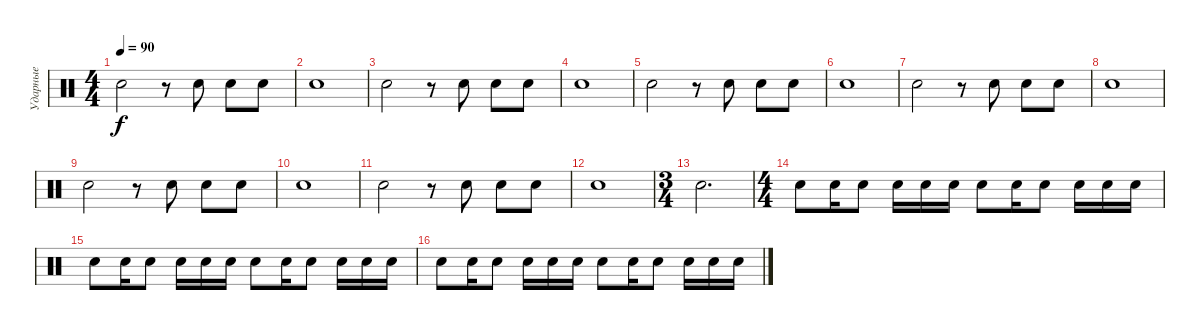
\track ("Ударные" "Ударные") {instrument percussion}
\staff {score}
\articulation defaults
\ts (4 4)
\tempo 90
\clef neutral
\ks c "Electric Snare (hit)".2{dy f}
r.8 "Electric Snare (hit)".8 "Electric Snare (hit)".8 "Electric Snare (hit)".8 |
"Electric Snare (hit)".1 |
"Electric Snare (hit)".2 r.8 "Electric Snare (hit)".8 "Electric Snare (hit)".8 "Electric Snare (hit)".8 |
"Electric Snare (hit)".1 |
"Electric Snare (hit)".2 r.8 "Electric Snare (hit)".8 "Electric Snare (hit)".8 "Electric Snare (hit)".8 |
"Electric Snare (hit)".1 |
"Electric Snare (hit)".2 r.8 "Electric Snare (hit)".8 "Electric Snare (hit)".8 "Electric Snare (hit)".8 |
"Electric Snare (hit)".1 |
"Electric Snare (hit)".2 r.8 "Electric Snare (hit)".8 "Electric Snare (hit)".8 "Electric Snare (hit)".8 |
"Electric Snare (hit)".1 |
"Electric Snare (hit)".2 r.8 "Electric Snare (hit)".8 "Electric Snare (hit)".8 "Electric Snare (hit)".8 |
"Electric Snare (hit)".1 |
\ts (3 4)
"Electric Snare (hit)".2{d} |
\ts (4 4)
"Electric Snare (hit)".8 "Electric Snare (hit)".16 "Electric Snare (hit)".8 "Electric Snare (hit)".16 "Electric Snare (hit)".16 "Electric Snare (hit)".16 "Electric Snare (hit)".8 "Electric Snare (hit)".16 "Electric Snare (hit)".8 "Electric Snare (hit)".16 "Electric Snare (hit)".16 "Electric Snare (hit)".16 |
"Electric Snare (hit)".8 "Electric Snare (hit)".16 "Electric Snare (hit)".8 "Electric Snare (hit)".16 "Electric Snare (hit)".16 "Electric Snare (hit)".16 "Electric Snare (hit)".8 "Electric Snare (hit)".16 "Electric Snare (hit)".8 "Electric Snare (hit)".16 "Electric Snare (hit)".16 "Electric Snare (hit)".16 |
"Electric Snare (hit)".8 "Electric Snare (hit)".16 "Electric Snare (hit)".8 "Electric Snare (hit)".16 "Electric Snare (hit)".16 "Electric Snare (hit)".16 "Electric Snare (hit)".8 "Electric Snare (hit)".16 "Electric Snare (hit)".8 "Electric Snare (hit)".16 "Electric Snare (hit)".16 "Electric Snare (hit)".16
